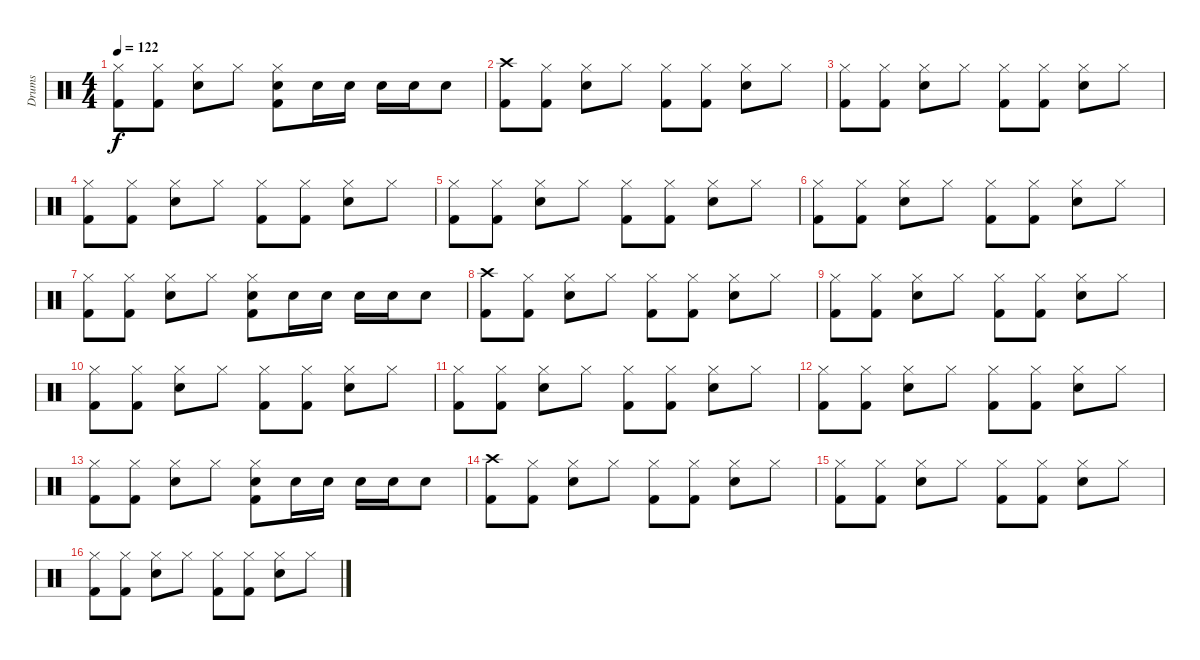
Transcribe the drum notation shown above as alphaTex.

\track ("Drums" "Drums") {instrument percussion}
\staff {score}
\articulation defaults
\ts (4 4)
\tempo 122
\clef neutral
\ks c
("Hi-Hat (closed)" "Kick (hit) 2").8{dy f} ("Hi-Hat (closed)" "Kick (hit) 2").8 ("Hi-Hat (closed)" "Snare (hit) 2").8 "Hi-Hat (closed)".8 ("Hi-Hat (closed)" "Snare (hit) 2" "Kick (hit) 2").8 "Snare (hit) 2".16 "Snare (hit) 2".16 "Snare (hit) 2".16 "Snare (hit) 2".16 "Snare (hit) 2".8 |
("Crash high (hit)" "Kick (hit) 2").8 ("Hi-Hat (closed)" "Kick (hit) 2").8 ("Hi-Hat (closed)" "Snare (hit) 2").8 "Hi-Hat (closed)".8 ("Hi-Hat (closed)" "Kick (hit) 2").8 ("Hi-Hat (closed)" "Kick (hit) 2").8 ("Hi-Hat (closed)" "Snare (hit) 2").8 "Hi-Hat (closed)".8 |
("Hi-Hat (closed)" "Kick (hit) 2").8 ("Hi-Hat (closed)" "Kick (hit) 2").8 ("Hi-Hat (closed)" "Snare (hit) 2").8 "Hi-Hat (closed)".8 ("Hi-Hat (closed)" "Kick (hit) 2").8 ("Hi-Hat (closed)" "Kick (hit) 2").8 ("Hi-Hat (closed)" "Snare (hit) 2").8 "Hi-Hat (closed)".8 |
("Hi-Hat (closed)" "Kick (hit) 2").8 ("Hi-Hat (closed)" "Kick (hit) 2").8 ("Hi-Hat (closed)" "Snare (hit) 2").8 "Hi-Hat (closed)".8 ("Hi-Hat (closed)" "Kick (hit) 2").8 ("Hi-Hat (closed)" "Kick (hit) 2").8 ("Hi-Hat (closed)" "Snare (hit) 2").8 "Hi-Hat (closed)".8 |
("Hi-Hat (closed)" "Kick (hit) 2").8 ("Hi-Hat (closed)" "Kick (hit) 2").8 ("Hi-Hat (closed)" "Snare (hit) 2").8 "Hi-Hat (closed)".8 ("Hi-Hat (closed)" "Kick (hit) 2").8 ("Hi-Hat (closed)" "Kick (hit) 2").8 ("Hi-Hat (closed)" "Snare (hit) 2").8 "Hi-Hat (closed)".8 |
("Hi-Hat (closed)" "Kick (hit) 2").8 ("Hi-Hat (closed)" "Kick (hit) 2").8 ("Hi-Hat (closed)" "Snare (hit) 2").8 "Hi-Hat (closed)".8 ("Hi-Hat (closed)" "Kick (hit) 2").8 ("Hi-Hat (closed)" "Kick (hit) 2").8 ("Hi-Hat (closed)" "Snare (hit) 2").8 "Hi-Hat (closed)".8 |
("Hi-Hat (closed)" "Kick (hit) 2").8 ("Hi-Hat (closed)" "Kick (hit) 2").8 ("Hi-Hat (closed)" "Snare (hit) 2").8 "Hi-Hat (closed)".8 ("Hi-Hat (closed)" "Snare (hit) 2" "Kick (hit) 2").8 "Snare (hit) 2".16 "Snare (hit) 2".16 "Snare (hit) 2".16 "Snare (hit) 2".16 "Snare (hit) 2".8 |
("Crash high (hit)" "Kick (hit) 2").8 ("Hi-Hat (closed)" "Kick (hit) 2").8 ("Hi-Hat (closed)" "Snare (hit) 2").8 "Hi-Hat (closed)".8 ("Hi-Hat (closed)" "Kick (hit) 2").8 ("Hi-Hat (closed)" "Kick (hit) 2").8 ("Hi-Hat (closed)" "Snare (hit) 2").8 "Hi-Hat (closed)".8 |
("Hi-Hat (closed)" "Kick (hit) 2").8 ("Hi-Hat (closed)" "Kick (hit) 2").8 ("Hi-Hat (closed)" "Snare (hit) 2").8 "Hi-Hat (closed)".8 ("Hi-Hat (closed)" "Kick (hit) 2").8 ("Hi-Hat (closed)" "Kick (hit) 2").8 ("Hi-Hat (closed)" "Snare (hit) 2").8 "Hi-Hat (closed)".8 |
("Hi-Hat (closed)" "Kick (hit) 2").8 ("Hi-Hat (closed)" "Kick (hit) 2").8 ("Hi-Hat (closed)" "Snare (hit) 2").8 "Hi-Hat (closed)".8 ("Hi-Hat (closed)" "Kick (hit) 2").8 ("Hi-Hat (closed)" "Kick (hit) 2").8 ("Hi-Hat (closed)" "Snare (hit) 2").8 "Hi-Hat (closed)".8 |
("Hi-Hat (closed)" "Kick (hit) 2").8 ("Hi-Hat (closed)" "Kick (hit) 2").8 ("Hi-Hat (closed)" "Snare (hit) 2").8 "Hi-Hat (closed)".8 ("Hi-Hat (closed)" "Kick (hit) 2").8 ("Hi-Hat (closed)" "Kick (hit) 2").8 ("Hi-Hat (closed)" "Snare (hit) 2").8 "Hi-Hat (closed)".8 |
("Hi-Hat (closed)" "Kick (hit) 2").8 ("Hi-Hat (closed)" "Kick (hit) 2").8 ("Hi-Hat (closed)" "Snare (hit) 2").8 "Hi-Hat (closed)".8 ("Hi-Hat (closed)" "Kick (hit) 2").8 ("Hi-Hat (closed)" "Kick (hit) 2").8 ("Hi-Hat (closed)" "Snare (hit) 2").8 "Hi-Hat (closed)".8 |
("Hi-Hat (closed)" "Kick (hit) 2").8 ("Hi-Hat (closed)" "Kick (hit) 2").8 ("Hi-Hat (closed)" "Snare (hit) 2").8 "Hi-Hat (closed)".8 ("Hi-Hat (closed)" "Snare (hit) 2" "Kick (hit) 2").8 "Snare (hit) 2".16 "Snare (hit) 2".16 "Snare (hit) 2".16 "Snare (hit) 2".16 "Snare (hit) 2".8 |
("Crash high (hit)" "Kick (hit) 2").8 ("Hi-Hat (closed)" "Kick (hit) 2").8 ("Hi-Hat (closed)" "Snare (hit) 2").8 "Hi-Hat (closed)".8 ("Hi-Hat (closed)" "Kick (hit) 2").8 ("Hi-Hat (closed)" "Kick (hit) 2").8 ("Hi-Hat (closed)" "Snare (hit) 2").8 "Hi-Hat (closed)".8 |
("Hi-Hat (closed)" "Kick (hit) 2").8 ("Hi-Hat (closed)" "Kick (hit) 2").8 ("Hi-Hat (closed)" "Snare (hit) 2").8 "Hi-Hat (closed)".8 ("Hi-Hat (closed)" "Kick (hit) 2").8 ("Hi-Hat (closed)" "Kick (hit) 2").8 ("Hi-Hat (closed)" "Snare (hit) 2").8 "Hi-Hat (closed)".8 |
("Hi-Hat (closed)" "Kick (hit) 2").8 ("Hi-Hat (closed)" "Kick (hit) 2").8 ("Hi-Hat (closed)" "Snare (hit) 2").8 "Hi-Hat (closed)".8 ("Hi-Hat (closed)" "Kick (hit) 2").8 ("Hi-Hat (closed)" "Kick (hit) 2").8 ("Hi-Hat (closed)" "Snare (hit) 2").8 "Hi-Hat (closed)".8
